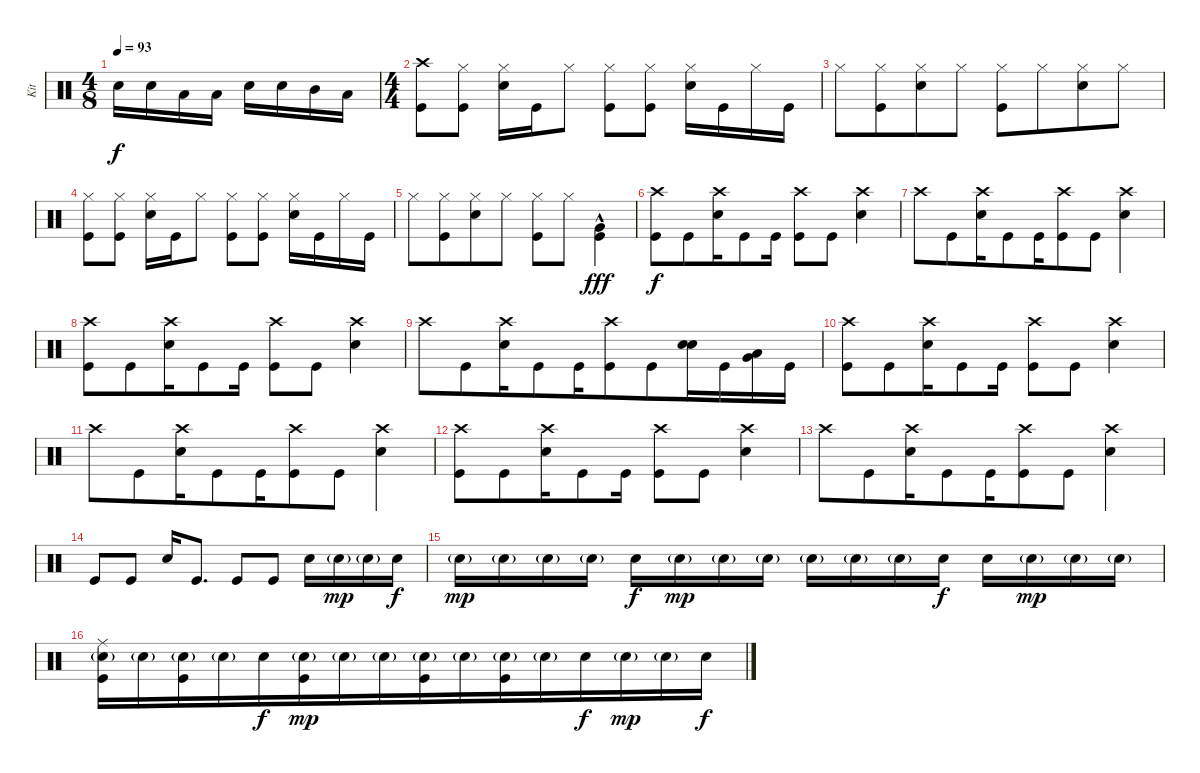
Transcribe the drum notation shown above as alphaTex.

\track ("Kit" "Kit") {instrument percussion}
\staff {score}
\articulation defaults
\ts (4 8)
\tempo 93
\clef neutral
\ks aminor "Electric Snare (hit)".16{dy f} "Electric Snare (hit)".16 "Low Tom (hit)".16 "Low Tom (hit)".16 "Electric Snare (hit)".16 "Electric Snare (hit)".16 "Mid Tom (hit)".16 "Low Tom (hit)".16
|
\ts (4 4)
("Crash high (hit)" "Kick (hit)").8{beam merge} ("Hi-Hat (closed)" "Kick (hit)").8 ("Hi-Hat (closed)" "Electric Snare (hit)").16 "Kick (hit)".16 "Hi-Hat (closed)".8 ("Hi-Hat (closed)" "Kick (hit)").8{beam merge} ("Hi-Hat (closed)" "Kick (hit)").8 ("Hi-Hat (closed)" "Electric Snare (hit)").16 "Kick (hit)".16 "Hi-Hat (closed)".16 "Kick (hit)".16 |
"Hi-Hat (closed)".8 ("Hi-Hat (closed)" "Kick (hit)").8{beam merge} ("Hi-Hat (closed)" "Electric Snare (hit)").8{beam merge} "Hi-Hat (closed)".8 ("Hi-Hat (closed)" "Kick (hit)").8{beam merge} "Hi-Hat (closed)".8{beam merge} ("Hi-Hat (closed)" "Electric Snare (hit)").8 "Hi-Hat (closed)".8 |
("Hi-Hat (closed)" "Kick (hit)").8{beam merge} ("Hi-Hat (closed)" "Kick (hit)").8 ("Hi-Hat (closed)" "Electric Snare (hit)").16 "Kick (hit)".16 "Hi-Hat (closed)".8 ("Hi-Hat (closed)" "Kick (hit)").8{beam merge} ("Hi-Hat (closed)" "Kick (hit)").8 ("Hi-Hat (closed)" "Electric Snare (hit)").16 "Kick (hit)".16 "Hi-Hat (closed)".16 "Kick (hit)".16 |
"Hi-Hat (closed)".8 ("Hi-Hat (closed)" "Kick (hit)").8{beam merge} ("Hi-Hat (closed)" "Electric Snare (hit)").8{beam merge} "Hi-Hat (closed)".8 ("Hi-Hat (closed)" "Kick (hit)").8{beam merge} "Hi-Hat (closed)".8{beam merge} ("Very Low Tom (hit)"{hac} "Kick (hit)").4{dy fff} |
("Crash high (hit)" "Kick (hit)").8{dy f beam merge} "Kick (hit)".8{beam merge} ("Crash high (hit)" "Electric Snare (hit)").16 "Kick (hit)".8 "Kick (hit)".16 ("Crash high (hit)" "Kick (hit)").8 "Kick (hit)".8 ("Crash high (hit)" "Electric Snare (hit)").4 |
"Crash high (hit)".8 "Kick (hit)".8{beam merge} ("Crash high (hit)" "Electric Snare (hit)").16{beam merge} "Kick (hit)".8{beam merge} "Kick (hit)".16{beam merge} ("Crash high (hit)" "Kick (hit)").8{beam merge} "Kick (hit)".8{beam merge} ("Crash high (hit)" "Electric Snare (hit)").4 |
("Crash high (hit)" "Kick (hit)").8{beam merge} "Kick (hit)".8{beam merge} ("Crash high (hit)" "Electric Snare (hit)").16 "Kick (hit)".8 "Kick (hit)".16 ("Crash high (hit)" "Kick (hit)").8 "Kick (hit)".8 ("Crash high (hit)" "Electric Snare (hit)").4 |
"Crash high (hit)".8 "Kick (hit)".8{beam merge} ("Crash high (hit)" "Electric Snare (hit)").16{beam merge} "Kick (hit)".8{beam merge} "Kick (hit)".16{beam merge} ("Crash high (hit)" "Kick (hit)").8{beam merge} "Kick (hit)".8{beam merge} ("Electric Snare (hit)" "Electric Snare (hit)").16 "Kick (hit)".16 ("Low Tom (hit)" "Very Low Tom (hit)").16{beam merge} "Kick (hit)".16 |
("Crash high (hit)" "Kick (hit)").8{beam merge} "Kick (hit)".8{beam merge} ("Crash high (hit)" "Electric Snare (hit)").16 "Kick (hit)".8 "Kick (hit)".16 ("Crash high (hit)" "Kick (hit)").8 "Kick (hit)".8 ("Crash high (hit)" "Electric Snare (hit)").4 |
"Crash high (hit)".8 "Kick (hit)".8{beam merge} ("Crash high (hit)" "Electric Snare (hit)").16{beam merge} "Kick (hit)".8{beam merge} "Kick (hit)".16{beam merge} ("Crash high (hit)" "Kick (hit)").8{beam merge} "Kick (hit)".8{beam merge} ("Crash high (hit)" "Electric Snare (hit)").4 |
("Crash high (hit)" "Kick (hit)").8{beam merge} "Kick (hit)".8{beam merge} ("Crash high (hit)" "Electric Snare (hit)").16 "Kick (hit)".8 "Kick (hit)".16 ("Crash high (hit)" "Kick (hit)").8 "Kick (hit)".8 ("Crash high (hit)" "Electric Snare (hit)").4 |
"Crash high (hit)".8 "Kick (hit)".8{beam merge} ("Crash high (hit)" "Electric Snare (hit)").16{beam merge} "Kick (hit)".8{beam merge} "Kick (hit)".16{beam merge} ("Crash high (hit)" "Kick (hit)").8{beam merge} "Kick (hit)".8{beam merge} ("Crash high (hit)" "Electric Snare (hit)").4 |
"Kick (hit)".8 "Kick (hit)".8 "Electric Snare (hit)".16 "Kick (hit)".8{d} "Kick (hit)".8 "Kick (hit)".8 "Electric Snare (hit)".16 "Electric Snare (hit)"{g}.16{dy mp} "Electric Snare (hit)"{g}.16 "Electric Snare (hit)".16{dy f} |
"Electric Snare (hit)"{g}.16{dy mp} "Electric Snare (hit)"{g}.16 "Electric Snare (hit)"{g}.16 "Electric Snare (hit)"{g}.16 "Electric Snare (hit)".16{dy f} "Electric Snare (hit)"{g}.16{dy mp} "Electric Snare (hit)"{g}.16 "Electric Snare (hit)"{g}.16 "Electric Snare (hit)"{g}.16 "Electric Snare (hit)"{g}.16 "Electric Snare (hit)"{g}.16 "Electric Snare (hit)".16{dy f} "Electric Snare (hit)".16 "Electric Snare (hit)"{g}.16{dy mp} "Electric Snare (hit)"{g}.16 "Electric Snare (hit)"{g}.16 |
("Ride (middle)" "Electric Snare (hit)"{g} "Kick (hit)").16{beam merge} "Electric Snare (hit)"{g}.16{beam merge} ("Electric Snare (hit)"{g} "Kick (hit)").16{beam merge} "Electric Snare (hit)"{g}.16{beam merge} "Electric Snare (hit)".16{dy f beam merge} ("Electric Snare (hit)"{g} "Kick (hit)").16{dy mp beam merge} "Electric Snare (hit)"{g}.16{beam merge} "Electric Snare (hit)"{g}.16{beam merge} ("Electric Snare (hit)"{g} "Kick (hit)").16{beam merge} "Electric Snare (hit)"{g}.16{beam merge} ("Electric Snare (hit)"{g} "Kick (hit)").16{beam merge} "Electric Snare (hit)"{g}.16{beam merge} "Electric Snare (hit)".16{dy f beam merge} "Electric Snare (hit)"{g}.16{dy mp beam merge} "Electric Snare (hit)"{g}.16{beam merge} "Electric Snare (hit)".16{dy f}
